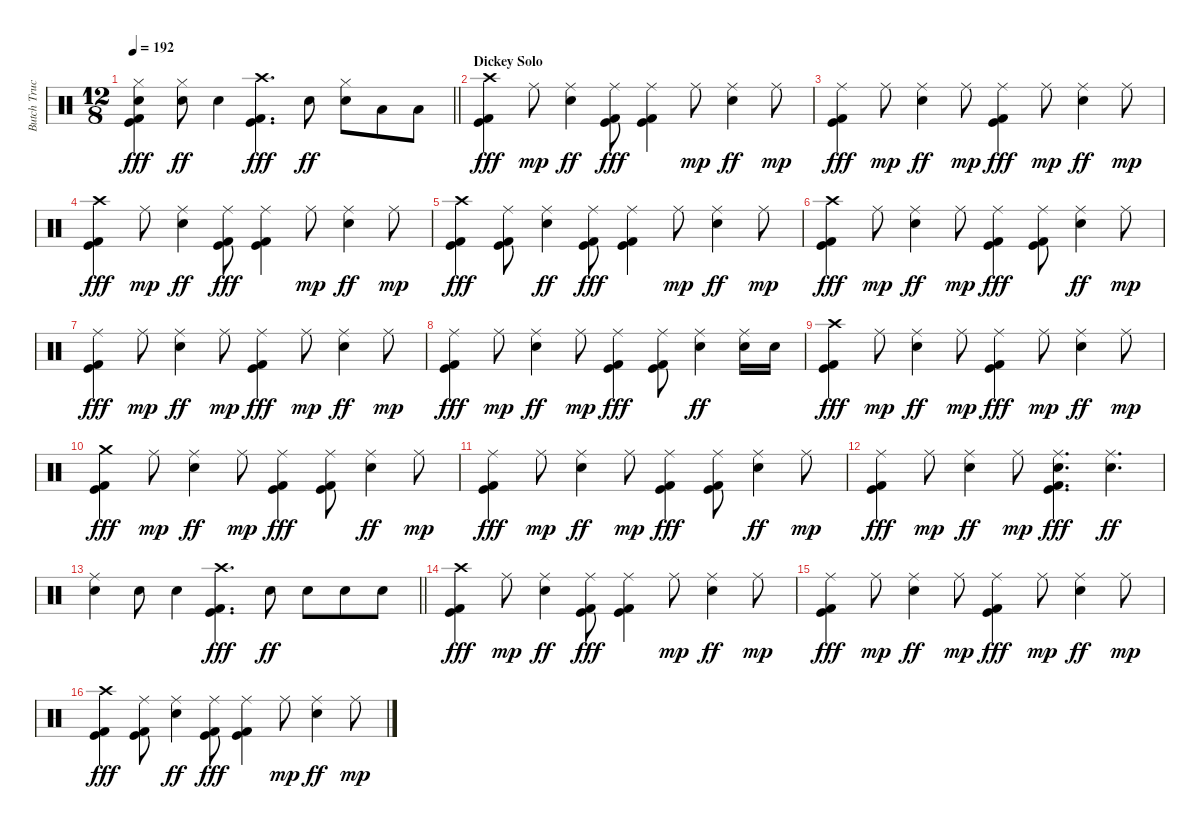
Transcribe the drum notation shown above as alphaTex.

\track ("Butch Trucks, Jaimoe - Drums" "Butch Truc") {instrument percussion}
\staff {score}
\articulation defaults
\ts (12 8)
\tempo 192
\clef neutral
\barLineRight lightlight
\ks c
("Hi-Hat (closed)" "Snare (hit) 2" "Kick (hit)" "Kick (hit) 2").4{dy fff} ("Hi-Hat (closed)" "Snare (hit) 2").8{dy ff} "Snare (hit) 2".4 ("Crash high (hit)" "Kick (hit)" "Kick (hit) 2").4{d dy fff} "Snare (hit) 2".8{dy ff} ("Hi-Hat (closed)" "Snare (hit) 2").8 "Low Tom (hit)".8 "Low Floor Tom (hit)".8 |
\section ("" "Dickey Solo")
("Crash high (hit)" "Kick (hit)" "Kick (hit) 2").4{dy fff} "Ride (middle)".8{dy mp} ("Ride (middle)" "Snare (hit) 2").4{dy ff} ("Ride (middle)" "Kick (hit)" "Kick (hit) 2").8{dy fff} ("Ride (middle)" "Kick (hit)" "Kick (hit) 2").4 "Ride (middle)".8{dy mp} ("Ride (middle)" "Snare (hit) 2").4{dy ff} "Ride (middle)".8{dy mp} |
("Ride (middle)" "Kick (hit)" "Kick (hit) 2").4{dy fff} "Ride (middle)".8{dy mp} ("Ride (middle)" "Snare (hit) 2").4{dy ff} "Ride (middle)".8{dy mp} ("Ride (middle)" "Kick (hit)" "Kick (hit) 2").4{dy fff} "Ride (middle)".8{dy mp} ("Ride (middle)" "Snare (hit) 2").4{dy ff} "Ride (middle)".8{dy mp} |
("Crash high (hit)" "Kick (hit)" "Kick (hit) 2").4{dy fff} "Ride (middle)".8{dy mp} ("Ride (middle)" "Snare (hit) 2").4{dy ff} ("Ride (middle)" "Kick (hit)" "Kick (hit) 2").8{dy fff} ("Ride (middle)" "Kick (hit)" "Kick (hit) 2").4 "Ride (middle)".8{dy mp} ("Ride (middle)" "Snare (hit) 2").4{dy ff} "Ride (middle)".8{dy mp} |
("Crash high (hit)" "Kick (hit)" "Kick (hit) 2").4{dy fff} ("Ride (middle)" "Kick (hit)" "Kick (hit) 2").8 ("Ride (middle)" "Snare (hit) 2").4{dy ff} ("Ride (middle)" "Kick (hit)" "Kick (hit) 2").8{dy fff} ("Ride (middle)" "Kick (hit)" "Kick (hit) 2").4 "Ride (middle)".8{dy mp} ("Ride (middle)" "Snare (hit) 2").4{dy ff} "Ride (middle)".8{dy mp} |
("Crash high (hit)" "Kick (hit)" "Kick (hit) 2").4{dy fff} "Ride (middle)".8{dy mp} ("Ride (middle)" "Snare (hit) 2").4{dy ff} "Ride (middle)".8{dy mp} ("Ride (middle)" "Kick (hit)" "Kick (hit) 2").4{dy fff} ("Ride (middle)" "Kick (hit)" "Kick (hit) 2").8 ("Ride (middle)" "Snare (hit) 2").4{dy ff} "Ride (middle)".8{dy mp} |
("Ride (middle)" "Kick (hit)" "Kick (hit) 2").4{dy fff} "Ride (middle)".8{dy mp} ("Ride (middle)" "Snare (hit) 2").4{dy ff} "Ride (middle)".8{dy mp} ("Ride (middle)" "Kick (hit)" "Kick (hit) 2").4{dy fff} "Ride (middle)".8{dy mp} ("Ride (middle)" "Snare (hit) 2").4{dy ff} "Ride (middle)".8{dy mp} |
("Ride (middle)" "Kick (hit)" "Kick (hit) 2").4{dy fff} "Ride (middle)".8{dy mp} ("Ride (middle)" "Snare (hit) 2").4{dy ff} "Ride (middle)".8{dy mp} ("Ride (middle)" "Kick (hit)" "Kick (hit) 2").4{dy fff} ("Ride (middle)" "Kick (hit)" "Kick (hit) 2").8 ("Ride (middle)" "Snare (hit) 2").4{dy ff} ("Ride (middle)" "Snare (hit) 2").16 "Snare (hit) 2".16 |
("Crash high (hit)" "Kick (hit)" "Kick (hit) 2").4{dy fff} "Ride (middle)".8{dy mp} ("Ride (middle)" "Snare (hit) 2").4{dy ff} "Ride (middle)".8{dy mp} ("Ride (middle)" "Kick (hit)" "Kick (hit) 2").4{dy fff} "Ride (middle)".8{dy mp} ("Ride (middle)" "Snare (hit) 2").4{dy ff} "Ride (middle)".8{dy mp} |
("Crash medium (hit)" "Kick (hit)" "Kick (hit) 2").4{dy fff} "Ride (middle)".8{dy mp} ("Ride (middle)" "Snare (hit) 2").4{dy ff} "Ride (middle)".8{dy mp} ("Ride (middle)" "Kick (hit)" "Kick (hit) 2").4{dy fff} ("Ride (middle)" "Kick (hit)" "Kick (hit) 2").8 ("Ride (middle)" "Snare (hit) 2").4{dy ff} "Ride (middle)".8{dy mp} |
("Ride (middle)" "Kick (hit)" "Kick (hit) 2").4{dy fff} "Ride (middle)".8{dy mp} ("Ride (middle)" "Snare (hit) 2").4{dy ff} "Ride (middle)".8{dy mp} ("Ride (middle)" "Kick (hit)" "Kick (hit) 2").4{dy fff} ("Ride (middle)" "Kick (hit)" "Kick (hit) 2").8 ("Ride (middle)" "Snare (hit) 2").4{dy ff} "Ride (middle)".8{dy mp} |
("Ride (middle)" "Kick (hit)" "Kick (hit) 2").4{dy fff} "Ride (middle)".8{dy mp} ("Ride (middle)" "Snare (hit) 2").4{dy ff} "Ride (middle)".8{dy mp} ("Ride (middle)" "Snare (hit) 2" "Kick (hit)" "Kick (hit) 2").4{d dy fff} ("Ride (middle)" "Snare (hit) 2").4{d dy ff} |
\barLineRight lightlight
("Ride (middle)" "Snare (hit) 2").4 "Snare (hit) 2".8 "Snare (hit) 2".4 ("Crash high (hit)" "Kick (hit)" "Kick (hit) 2").4{d dy fff} "Snare (hit) 2".8{dy ff} "Snare (hit) 2".8 "Snare (hit) 2".8 "Snare (hit) 2".8 |
("Crash high (hit)" "Kick (hit)" "Kick (hit) 2").4{dy fff} "Ride (middle)".8{dy mp} ("Ride (middle)" "Snare (hit) 2").4{dy ff} ("Ride (middle)" "Kick (hit)" "Kick (hit) 2").8{dy fff} ("Ride (middle)" "Kick (hit)" "Kick (hit) 2").4 "Ride (middle)".8{dy mp} ("Ride (middle)" "Snare (hit) 2").4{dy ff} "Ride (middle)".8{dy mp} |
("Ride (middle)" "Kick (hit)" "Kick (hit) 2").4{dy fff} "Ride (middle)".8{dy mp} ("Ride (middle)" "Snare (hit) 2").4{dy ff} "Ride (middle)".8{dy mp} ("Ride (middle)" "Kick (hit)" "Kick (hit) 2").4{dy fff} "Ride (middle)".8{dy mp} ("Ride (middle)" "Snare (hit) 2").4{dy ff} "Ride (middle)".8{dy mp} |
("Crash high (hit)" "Kick (hit)" "Kick (hit) 2").4{dy fff} ("Ride (middle)" "Kick (hit)" "Kick (hit) 2").8 ("Ride (middle)" "Snare (hit) 2").4{dy ff} ("Ride (middle)" "Kick (hit)" "Kick (hit) 2").8{dy fff} ("Ride (middle)" "Kick (hit)" "Kick (hit) 2").4 "Ride (middle)".8{dy mp} ("Ride (middle)" "Snare (hit) 2").4{dy ff} "Ride (middle)".8{dy mp}
